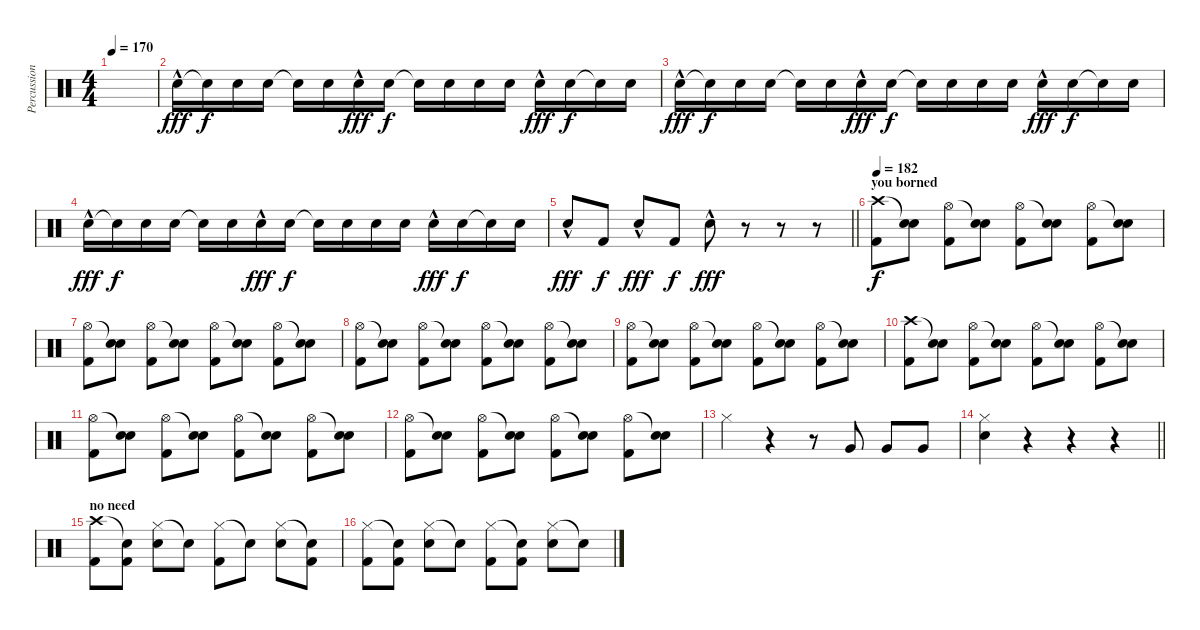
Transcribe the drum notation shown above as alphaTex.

\track ("Percussioni" "Percussion") {instrument percussion}
\staff {score}
\articulation defaults
\ts (4 4)
\tempo 170
\clef neutral
\ks c
|
"Snare (hit) 2"{hac}.16{dy fff} "Snare (hit) 2"{t}.16{dy f} "Snare (hit) 2".16 "Snare (hit) 2".16 "Snare (hit) 2"{t}.16 "Snare (hit) 2".16 "Snare (hit) 2"{hac}.16{dy fff} "Snare (hit) 2".16{dy f} "Snare (hit) 2"{t}.16 "Snare (hit) 2".16 "Snare (hit) 2".16 "Snare (hit) 2".16 "Snare (hit) 2"{hac}.16{dy fff} "Snare (hit) 2".16{dy f} "Snare (hit) 2"{t}.16 "Snare (hit) 2".16 |
"Snare (hit) 2"{hac}.16{dy fff} "Snare (hit) 2"{t}.16{dy f} "Snare (hit) 2".16 "Snare (hit) 2".16 "Snare (hit) 2"{t}.16 "Snare (hit) 2".16 "Snare (hit) 2"{hac}.16{dy fff} "Snare (hit) 2".16{dy f} "Snare (hit) 2"{t}.16 "Snare (hit) 2".16 "Snare (hit) 2".16 "Snare (hit) 2".16 "Snare (hit) 2"{hac}.16{dy fff} "Snare (hit) 2".16{dy f} "Snare (hit) 2"{t}.16 "Snare (hit) 2".16 |
"Snare (hit) 2"{hac}.16{dy fff} "Snare (hit) 2"{t}.16{dy f} "Snare (hit) 2".16 "Snare (hit) 2".16 "Snare (hit) 2"{t}.16 "Snare (hit) 2".16 "Snare (hit) 2"{hac}.16{dy fff} "Snare (hit) 2".16{dy f} "Snare (hit) 2"{t}.16 "Snare (hit) 2".16 "Snare (hit) 2".16 "Snare (hit) 2".16 "Snare (hit) 2"{hac}.16{dy fff} "Snare (hit) 2".16{dy f} "Snare (hit) 2"{t}.16 "Snare (hit) 2".16 |
\barLineRight lightlight "Snare (hit) 2"{hac}.8{dy fff} "Kick (hit) 2".8{dy f} "Snare (hit) 2"{hac}.8{dy fff} "Kick (hit) 2".8{dy f} "Snare (hit) 2"{hac}.8{dy fff}
r.8 r.8 r.8 |
\section ("" "you borned")
\tempo 182
("Crash high (hit)" "Kick (hit) 2").8{dy f} ("Snare (hit)"{t} "Snare (hit) 2").8 ("Hi-Hat (open)" "Kick (hit) 2").8 ("Snare (hit)"{t} "Snare (hit) 2").8 ("Hi-Hat (open)" "Kick (hit) 2").8 ("Snare (hit)"{t} "Snare (hit) 2").8 ("Hi-Hat (open)" "Kick (hit) 2").8 ("Snare (hit)"{t} "Snare (hit) 2").8 |
("Hi-Hat (open)" "Kick (hit) 2").8 ("Snare (hit)"{t} "Snare (hit) 2").8 ("Hi-Hat (open)" "Kick (hit) 2").8 ("Snare (hit)"{t} "Snare (hit) 2").8 ("Hi-Hat (open)" "Kick (hit) 2").8 ("Snare (hit)"{t} "Snare (hit) 2").8 ("Hi-Hat (open)" "Kick (hit) 2").8 ("Snare (hit)"{t} "Snare (hit) 2").8 |
("Hi-Hat (open)" "Kick (hit) 2").8 ("Snare (hit)"{t} "Snare (hit) 2").8 ("Hi-Hat (open)" "Kick (hit) 2").8 ("Snare (hit)"{t} "Snare (hit) 2").8 ("Hi-Hat (open)" "Kick (hit) 2").8 ("Snare (hit)"{t} "Snare (hit) 2").8 ("Hi-Hat (open)" "Kick (hit) 2").8 ("Snare (hit)"{t} "Snare (hit) 2").8 |
("Hi-Hat (open)" "Kick (hit) 2").8 ("Snare (hit)"{t} "Snare (hit) 2").8 ("Hi-Hat (open)" "Kick (hit) 2").8 ("Snare (hit)"{t} "Snare (hit) 2").8 ("Hi-Hat (open)" "Kick (hit) 2").8 ("Snare (hit)"{t} "Snare (hit) 2").8 ("Hi-Hat (open)" "Kick (hit) 2").8 ("Snare (hit)"{t} "Snare (hit) 2").8 |
("Crash high (hit)" "Kick (hit) 2").8 ("Snare (hit)"{t} "Snare (hit) 2").8 ("Hi-Hat (open)" "Kick (hit) 2").8 ("Snare (hit)"{t} "Snare (hit) 2").8 ("Hi-Hat (open)" "Kick (hit) 2").8 ("Snare (hit)"{t} "Snare (hit) 2").8 ("Hi-Hat (open)" "Kick (hit) 2").8 ("Snare (hit)"{t} "Snare (hit) 2").8 |
("Hi-Hat (open)" "Kick (hit) 2").8 ("Snare (hit)"{t} "Snare (hit) 2").8 ("Hi-Hat (open)" "Kick (hit) 2").8 ("Snare (hit)"{t} "Snare (hit) 2").8 ("Hi-Hat (open)" "Kick (hit) 2").8 ("Snare (hit)"{t} "Snare (hit) 2").8 ("Hi-Hat (open)" "Kick (hit) 2").8 ("Snare (hit)"{t} "Snare (hit) 2").8 |
("Hi-Hat (open)" "Kick (hit) 2").8 ("Snare (hit)"{t} "Snare (hit) 2").8 ("Hi-Hat (open)" "Kick (hit) 2").8 ("Snare (hit)"{t} "Snare (hit) 2").8 ("Hi-Hat (open)" "Kick (hit) 2").8 ("Snare (hit)"{t} "Snare (hit) 2").8 ("Hi-Hat (open)" "Kick (hit) 2").8 ("Snare (hit)"{t} "Snare (hit) 2").8 |
"Hi-Hat (closed)".4 r.4 r.8 "Very Low Tom (hit)".8 "Very Low Tom (hit)".8 "Very Low Tom (hit)".8 |
\barLineRight lightlight
("Hi-Hat (closed)" "Snare (hit) 2").4 r.4 r.4 r.4 |
\section ("" "no need")
("Crash high (hit)" "Kick (hit) 2").8 ("Snare (hit)"{t} "Kick (hit) 2").8 ("Hi-Hat (closed)" "Snare (hit) 2").8 "Snare (hit)"{t}.8 ("Hi-Hat (closed)" "Kick (hit) 2").8 "Snare (hit)"{t}.8 ("Hi-Hat (closed)" "Snare (hit) 2").8 ("Snare (hit)"{t} "Kick (hit) 2").8 |
("Hi-Hat (closed)" "Kick (hit) 2").8 ("Snare (hit)"{t} "Kick (hit) 2").8 ("Hi-Hat (closed)" "Snare (hit) 2").8 "Snare (hit)"{t}.8 ("Hi-Hat (closed)" "Kick (hit) 2").8 ("Snare (hit)"{t} "Kick (hit) 2").8 ("Hi-Hat (closed)" "Snare (hit) 2").8 "Snare (hit)"{t}.8
